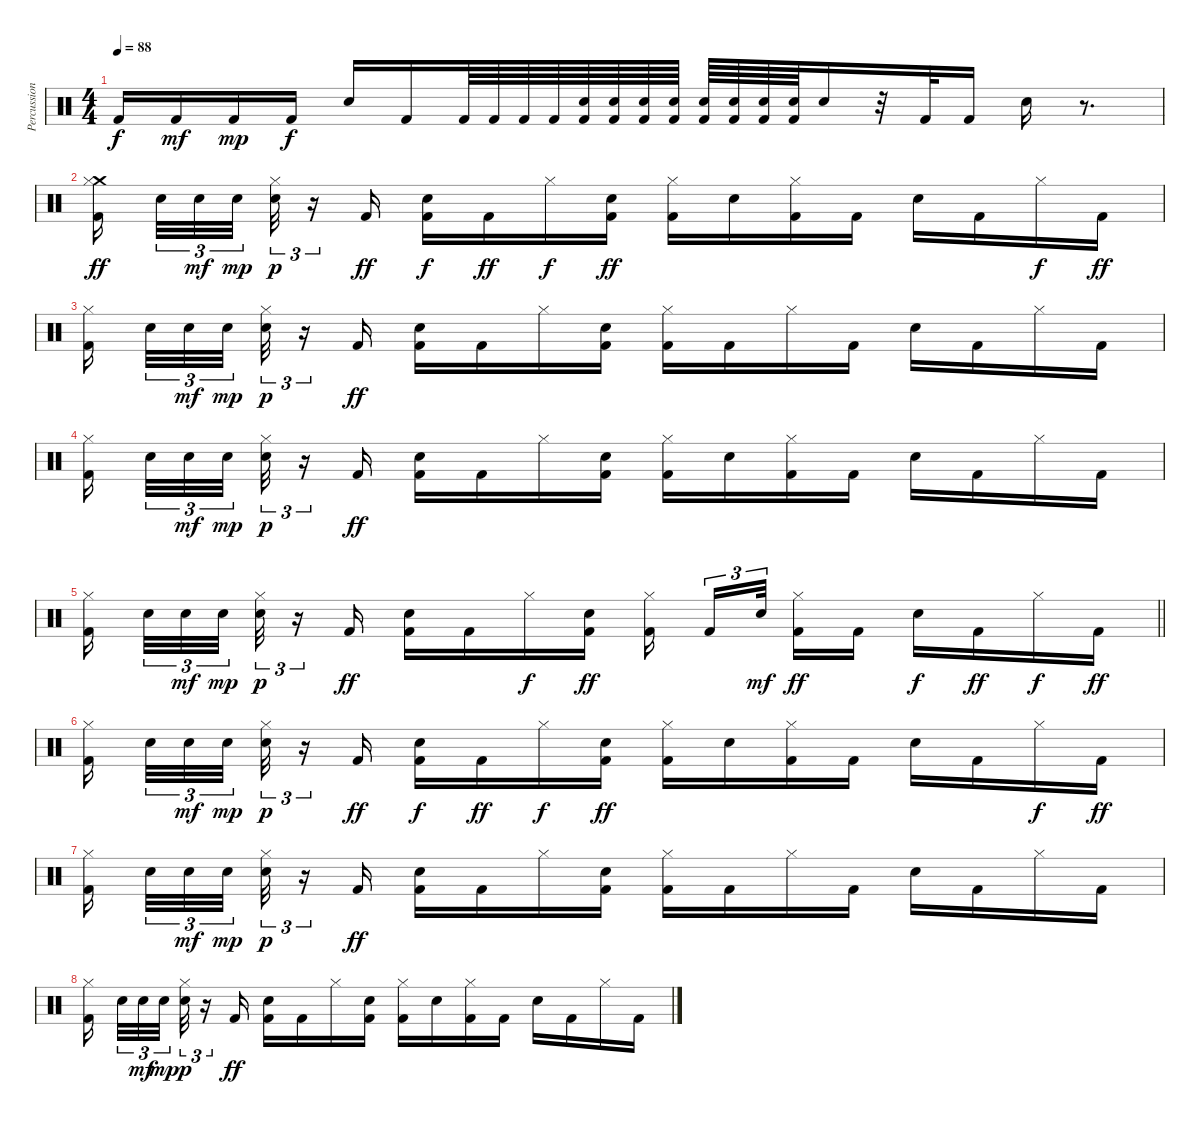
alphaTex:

\track ("Percussion" "Percussion") {instrument percussion}
\staff {score}
\articulation defaults
\ts (4 4)
\tempo 88
\clef neutral
\ks c "Kick (hit) 2".16{dy f} "Kick (hit) 2".16{dy mf} "Kick (hit) 2".16{dy mp} "Kick (hit) 2".16{dy f} "Snare (hit) 2".16 "Kick (hit) 2".16 "Kick (hit) 2".64 "Kick (hit) 2".64 "Kick (hit) 2".64 "Kick (hit) 2".64
("Snare (hit) 2" "Kick (hit) 2").64 ("Snare (hit) 2" "Kick (hit) 2").64 ("Snare (hit) 2" "Kick (hit) 2").64 ("Snare (hit) 2" "Kick (hit) 2").64 ("Electric Snare (hit)" "Kick (hit) 2").64 ("Electric Snare (hit)" "Kick (hit) 2").64 ("Electric Snare (hit)" "Kick (hit) 2").64 ("Electric Snare (hit)" "Kick (hit) 2").64 "Snare (hit) 2".16 r.32 "Kick (hit) 2".32 "Kick (hit) 2".16 "Snare (hit) 2".16 r.8{d} |
("Crash medium (hit)" "Hi-Hat (closed)" "Kick (hit) 2").16{dy ff beam splitsecondary} "Snare (hit) 2".32{tu (3 2)} "Snare (hit) 2".32{tu (3 2) dy mf} "Snare (hit) 2".32{tu (3 2) dy mp beam splitsecondary} ("Hi-Hat (closed)" "Snare (hit) 2").32{tu (3 2) dy p} r.16{tu (3 2)} "Kick (hit) 2".16{dy ff} ("Snare (hit) 2" "Kick (hit) 2").16{dy f} "Kick (hit) 2".16{dy ff} "Hi-Hat (closed)".16{dy f} ("Electric Snare (hit)" "Kick (hit) 2").16{dy ff} ("Hi-Hat (closed)" "Kick (hit) 2").16 "Snare (hit) 2".16 ("Hi-Hat (closed)" "Kick (hit) 2").16 "Kick (hit) 2".16 "Electric Snare (hit)".16 "Kick (hit) 2".16 "Hi-Hat (closed)".16{dy f} "Kick (hit) 2".16{dy ff} |
("Hi-Hat (closed)" "Kick (hit) 2").16{beam splitsecondary} "Snare (hit) 2".32{tu (3 2)} "Snare (hit) 2".32{tu (3 2) dy mf} "Snare (hit) 2".32{tu (3 2) dy mp beam splitsecondary} ("Hi-Hat (closed)" "Snare (hit) 2").32{tu (3 2) dy p} r.16{tu (3 2)} "Kick (hit) 2".16{dy ff} ("Electric Snare (hit)" "Kick (hit) 2").16 "Kick (hit) 2".16 "Hi-Hat (closed)".16 ("Snare (hit) 2" "Kick (hit) 2").16 ("Hi-Hat (closed)" "Kick (hit) 2").16 "Kick (hit) 2".16 "Hi-Hat (closed)".16 "Kick (hit) 2".16 "Electric Snare (hit)".16 "Kick (hit) 2".16 "Hi-Hat (closed)".16 "Kick (hit) 2".16 |
("Hi-Hat (closed)" "Kick (hit) 2").16{beam splitsecondary} "Snare (hit) 2".32{tu (3 2)} "Snare (hit) 2".32{tu (3 2) dy mf} "Snare (hit) 2".32{tu (3 2) dy mp beam splitsecondary} ("Hi-Hat (closed)" "Snare (hit) 2").32{tu (3 2) dy p} r.16{tu (3 2)} "Kick (hit) 2".16{dy ff} ("Snare (hit) 2" "Kick (hit) 2").16 "Kick (hit) 2".16 "Hi-Hat (closed)".16 ("Electric Snare (hit)" "Kick (hit) 2").16 ("Hi-Hat (closed)" "Kick (hit) 2").16 "Snare (hit) 2".16 ("Hi-Hat (closed)" "Kick (hit) 2").16 "Kick (hit) 2".16 "Electric Snare (hit)".16 "Kick (hit) 2".16 "Hi-Hat (closed)".16 "Kick (hit) 2".16 |
\barLineRight lightlight
("Hi-Hat (closed)" "Kick (hit) 2").16{beam splitsecondary} "Snare (hit) 2".32{tu (3 2)} "Snare (hit) 2".32{tu (3 2) dy mf} "Snare (hit) 2".32{tu (3 2) dy mp beam splitsecondary} ("Hi-Hat (closed)" "Snare (hit) 2").32{tu (3 2) dy p} r.16{tu (3 2)} "Kick (hit) 2".16{dy ff} ("Electric Snare (hit)" "Kick (hit) 2").16 "Kick (hit) 2".16 "Hi-Hat (closed)".16{dy f} ("Snare (hit) 2" "Kick (hit) 2").16{dy ff} ("Hi-Hat (closed)" "Kick (hit) 2").16{beam splitsecondary} "Kick (hit) 2".16{tu (3 2)} "Snare (hit) 2".32{tu (3 2) dy mf beam splitsecondary} ("Hi-Hat (closed)" "Kick (hit) 2").16{dy ff} "Kick (hit) 2".16 "Snare (hit) 2".16{dy f} "Kick (hit) 2".16{dy ff} "Hi-Hat (closed)".16{dy f} "Kick (hit) 2".16{dy ff} |
("Hi-Hat (closed)" "Kick (hit) 2").16{beam splitsecondary} "Snare (hit) 2".32{tu (3 2)} "Snare (hit) 2".32{tu (3 2) dy mf} "Snare (hit) 2".32{tu (3 2) dy mp beam splitsecondary} ("Hi-Hat (closed)" "Snare (hit) 2").32{tu (3 2) dy p} r.16{tu (3 2)} "Kick (hit) 2".16{dy ff} ("Snare (hit) 2" "Kick (hit) 2").16{dy f} "Kick (hit) 2".16{dy ff} "Hi-Hat (closed)".16{dy f} ("Electric Snare (hit)" "Kick (hit) 2").16{dy ff} ("Hi-Hat (closed)" "Kick (hit) 2").16 "Snare (hit) 2".16 ("Hi-Hat (closed)" "Kick (hit) 2").16 "Kick (hit) 2".16 "Electric Snare (hit)".16 "Kick (hit) 2".16 "Hi-Hat (closed)".16{dy f} "Kick (hit) 2".16{dy ff} |
("Hi-Hat (closed)" "Kick (hit) 2").16{beam splitsecondary} "Snare (hit) 2".32{tu (3 2)} "Snare (hit) 2".32{tu (3 2) dy mf} "Snare (hit) 2".32{tu (3 2) dy mp beam splitsecondary} ("Hi-Hat (closed)" "Snare (hit) 2").32{tu (3 2) dy p} r.16{tu (3 2)} "Kick (hit) 2".16{dy ff} ("Electric Snare (hit)" "Kick (hit) 2").16 "Kick (hit) 2".16 "Hi-Hat (closed)".16 ("Snare (hit) 2" "Kick (hit) 2").16 ("Hi-Hat (closed)" "Kick (hit) 2").16 "Kick (hit) 2".16 "Hi-Hat (closed)".16 "Kick (hit) 2".16 "Electric Snare (hit)".16 "Kick (hit) 2".16 "Hi-Hat (closed)".16 "Kick (hit) 2".16 |
("Hi-Hat (closed)" "Kick (hit) 2").16{beam splitsecondary} "Snare (hit) 2".32{tu (3 2)} "Snare (hit) 2".32{tu (3 2) dy mf} "Snare (hit) 2".32{tu (3 2) dy mp beam splitsecondary} ("Hi-Hat (closed)" "Snare (hit) 2").32{tu (3 2) dy p} r.16{tu (3 2)} "Kick (hit) 2".16{dy ff} ("Snare (hit) 2" "Kick (hit) 2").16 "Kick (hit) 2".16 "Hi-Hat (closed)".16 ("Electric Snare (hit)" "Kick (hit) 2").16 ("Hi-Hat (closed)" "Kick (hit) 2").16 "Snare (hit) 2".16 ("Hi-Hat (closed)" "Kick (hit) 2").16 "Kick (hit) 2".16 "Electric Snare (hit)".16 "Kick (hit) 2".16 "Hi-Hat (closed)".16 "Kick (hit) 2".16
